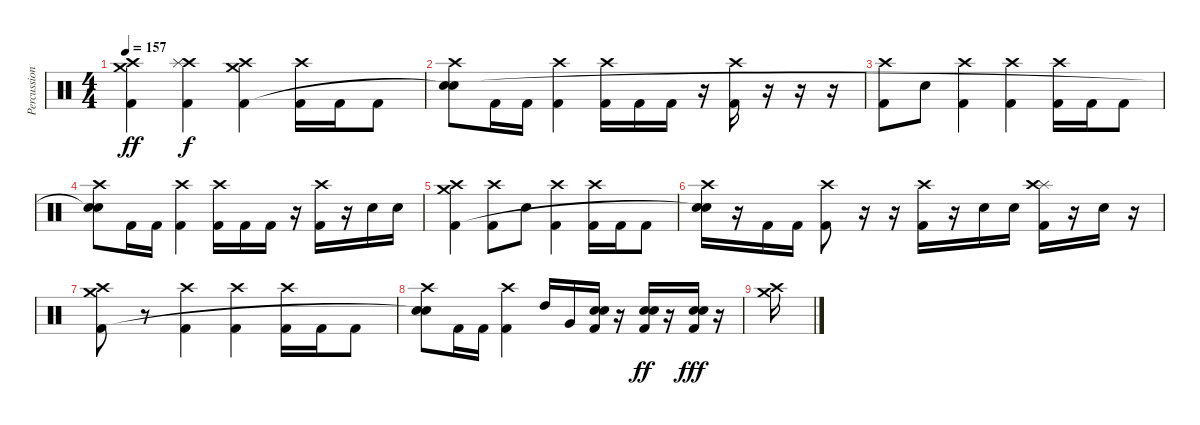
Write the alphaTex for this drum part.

\track ("Percussions" "Percussion") {instrument percussion}
\staff {score}
\articulation defaults
\ts (4 4)
\tempo 157
\clef neutral
\ks c
("Crash high (hit)" "Crash medium (hit)" "Kick (hit) 2").4{dy ff} ("Crash high (hit)" "Splash (hit)" "Kick (hit) 2").4{dy f} ("Crash high (hit)" "Crash medium (hit)" "Kick (hit) 2").4 ("Crash high (hit)" "Kick (hit) 2").16 "Kick (hit) 2".16 "Kick (hit) 2".8 |
("Crash high (hit)" "Electric Snare (hit)" "Snare (hit)"{t}).8 "Kick (hit) 2".16 "Kick (hit) 2".16 ("Crash high (hit)" "Kick (hit) 2").4 ("Crash high (hit)" "Kick (hit) 2").16 "Kick (hit) 2".16 "Kick (hit) 2".16 r.16 ("Crash high (hit)" "Kick (hit) 2").16 r.16 r.16 r.16 |
("Crash high (hit)" "Kick (hit) 2").8 "Electric Snare (hit)".8 ("Crash high (hit)" "Kick (hit) 2").4 ("Crash high (hit)" "Kick (hit) 2").4 ("Crash high (hit)" "Kick (hit) 2").16 "Kick (hit) 2".16 "Kick (hit) 2".8 |
("Crash high (hit)" "Electric Snare (hit)" "Snare (hit)"{t}).8 "Kick (hit) 2".16 "Kick (hit) 2".16 ("Crash high (hit)" "Kick (hit) 2").4 ("Crash high (hit)" "Kick (hit) 2").16 "Kick (hit) 2".16 "Kick (hit) 2".16 r.16 ("Crash high (hit)" "Kick (hit) 2").16 r.16 "Electric Snare (hit)".16 "Electric Snare (hit)".16 |
("Crash medium (hit)" "Crash high (hit)" "Kick (hit) 2").4 ("Crash high (hit)" "Kick (hit) 2").8 "Electric Snare (hit)".8 ("Crash high (hit)" "Kick (hit) 2").4 ("Crash high (hit)" "Kick (hit) 2").16 "Kick (hit) 2".16 "Kick (hit) 2".8 |
("Crash high (hit)" "Electric Snare (hit)" "Snare (hit)"{t}).16 r.16 "Kick (hit) 2".16 "Kick (hit) 2".16 ("Crash high (hit)" "Kick (hit) 2").8 r.16 r.16 ("Crash high (hit)" "Kick (hit) 2").16 r.16 "Electric Snare (hit)".16 "Electric Snare (hit)".16 ("Splash (hit)" "Crash high (hit)" "Kick (hit) 2").16 r.16 "Electric Snare (hit)".16 r.16 |
("Crash medium (hit)" "Crash high (hit)" "Kick (hit) 2").8 r.8 ("Crash high (hit)" "Kick (hit) 2").4 ("Crash high (hit)" "Kick (hit) 2").4 ("Crash high (hit)" "Kick (hit) 2").16 "Kick (hit) 2".16 "Kick (hit) 2".8 |
("Crash high (hit)" "Electric Snare (hit)" "Snare (hit)"{t}).8 "Kick (hit) 2".16 "Kick (hit) 2".16 ("Crash high (hit)" "Kick (hit) 2").4 "High Tom (hit)".16 "Very Low Tom (hit)".16 ("Snare (hit) 2" "Electric Snare (hit)" "Kick (hit) 2").16 r.16 ("Snare (hit) 2" "Electric Snare (hit)" "Kick (hit) 2").16{dy ff} r.16 ("Snare (hit) 2" "Electric Snare (hit)" "Kick (hit) 2").16{dy fff} r.16 |
("Crash high (hit)" "Crash medium (hit)").16{volume 0}
